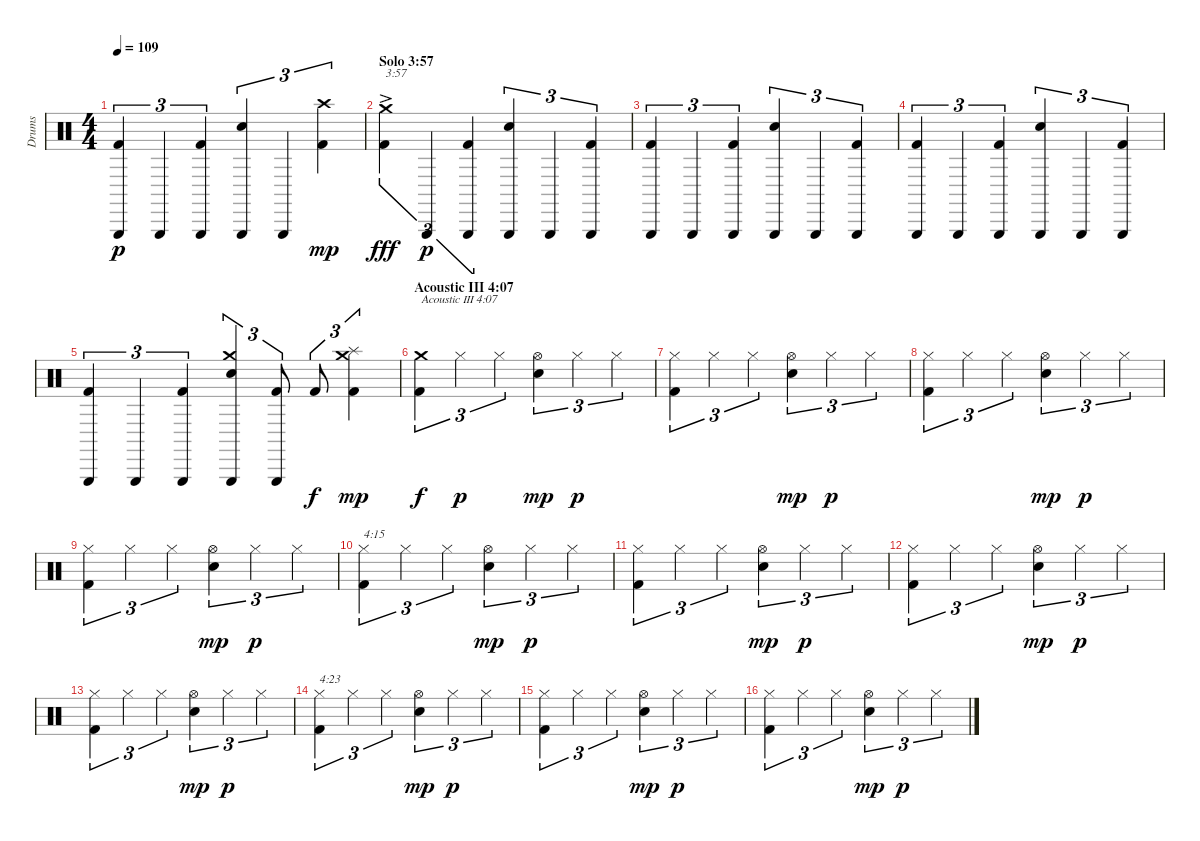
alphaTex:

\track ("Drums" "Drums") {instrument percussion}
\staff {score}
\articulation defaults
\ts (4 4)
\tempo 109
\clef neutral
\ks c
("Kick (hit) 2" "Triangle (hit)").4{tu (3 2) dy p} "Triangle (hit)".4{tu (3 2)} ("Kick (hit) 2" "Triangle (hit)").4{tu (3 2)} ("Electric Snare (hit)" "Triangle (hit)").4{tu (3 2)} "Triangle (hit)".4{tu (3 2)} ("Kick (hit) 2" "Crash high (hit)").4{tu (3 2) dy mp} |
\section ("" "Solo 3:57")
("Kick (hit) 2" "Crash medium (hit)"{ac}).4{tu (3 2) txt "3:57" dy fff} "Triangle (hit)".4{tu (3 2) dy p} ("Kick (hit) 2" "Triangle (hit)").4{tu (3 2)} ("Electric Snare (hit)" "Triangle (hit)").4{tu (3 2)} "Triangle (hit)".4{tu (3 2)} ("Kick (hit) 2" "Triangle (hit)").4{tu (3 2)} |
("Kick (hit) 2" "Triangle (hit)").4{tu (3 2)} "Triangle (hit)".4{tu (3 2)} ("Kick (hit) 2" "Triangle (hit)").4{tu (3 2)} ("Electric Snare (hit)" "Triangle (hit)").4{tu (3 2)} "Triangle (hit)".4{tu (3 2)} ("Kick (hit) 2" "Triangle (hit)").4{tu (3 2)} |
("Kick (hit) 2" "Triangle (hit)").4{tu (3 2)} "Triangle (hit)".4{tu (3 2)} ("Kick (hit) 2" "Triangle (hit)").4{tu (3 2)} ("Electric Snare (hit)" "Triangle (hit)").4{tu (3 2)} "Triangle (hit)".4{tu (3 2)} ("Kick (hit) 2" "Triangle (hit)").4{tu (3 2)} |
("Kick (hit) 2" "Triangle (hit)").4{tu (3 2)} "Triangle (hit)".4{tu (3 2)} ("Kick (hit) 2" "Triangle (hit)").4{tu (3 2)} ("Electric Snare (hit)" "Triangle (hit)" "Crash medium (hit)").4{tu (3 2)} ("Kick (hit) 2" "Triangle (hit)").8{tu (3 2)} "Kick (hit) 2".8{tu (3 2) dy f} ("Kick (hit) 2" "Splash (hit)" "Crash medium (hit)").4{tu (3 2) dy mp} |
\section ("" "Acoustic III 4:07")
("Kick (hit) 2" "Crash medium (hit)").4{tu (3 2) txt "Acoustic III 4:07" dy f} "Hi-Hat (closed)".4{tu (3 2) dy p} "Hi-Hat (closed)".4{tu (3 2)} ("Electric Snare (hit)" "Hi-Hat (open)").4{tu (3 2) dy mp} "Hi-Hat (closed)".4{tu (3 2) dy p} "Hi-Hat (closed)".4{tu (3 2)} |
("Kick (hit) 2" "Hi-Hat (closed)").4{tu (3 2)} "Hi-Hat (closed)".4{tu (3 2)} "Hi-Hat (closed)".4{tu (3 2)} ("Electric Snare (hit)" "Hi-Hat (open)").4{tu (3 2) dy mp} "Hi-Hat (closed)".4{tu (3 2) dy p} "Hi-Hat (closed)".4{tu (3 2)} |
("Kick (hit) 2" "Hi-Hat (closed)").4{tu (3 2)} "Hi-Hat (closed)".4{tu (3 2)} "Hi-Hat (closed)".4{tu (3 2)} ("Electric Snare (hit)" "Hi-Hat (open)").4{tu (3 2) dy mp} "Hi-Hat (closed)".4{tu (3 2) dy p} "Hi-Hat (closed)".4{tu (3 2)} |
("Kick (hit) 2" "Hi-Hat (closed)").4{tu (3 2)} "Hi-Hat (closed)".4{tu (3 2)} "Hi-Hat (closed)".4{tu (3 2)} ("Electric Snare (hit)" "Hi-Hat (open)").4{tu (3 2) dy mp} "Hi-Hat (closed)".4{tu (3 2) dy p} "Hi-Hat (closed)".4{tu (3 2)} |
("Kick (hit) 2" "Hi-Hat (closed)").4{tu (3 2) txt "4:15"} "Hi-Hat (closed)".4{tu (3 2)} "Hi-Hat (closed)".4{tu (3 2)} ("Electric Snare (hit)" "Hi-Hat (open)").4{tu (3 2) dy mp} "Hi-Hat (closed)".4{tu (3 2) dy p} "Hi-Hat (closed)".4{tu (3 2)} |
("Kick (hit) 2" "Hi-Hat (closed)").4{tu (3 2)} "Hi-Hat (closed)".4{tu (3 2)} "Hi-Hat (closed)".4{tu (3 2)} ("Electric Snare (hit)" "Hi-Hat (open)").4{tu (3 2) dy mp} "Hi-Hat (closed)".4{tu (3 2) dy p} "Hi-Hat (closed)".4{tu (3 2)} |
("Kick (hit) 2" "Hi-Hat (closed)").4{tu (3 2)} "Hi-Hat (closed)".4{tu (3 2)} "Hi-Hat (closed)".4{tu (3 2)} ("Electric Snare (hit)" "Hi-Hat (open)").4{tu (3 2) dy mp} "Hi-Hat (closed)".4{tu (3 2) dy p} "Hi-Hat (closed)".4{tu (3 2)} |
("Kick (hit) 2" "Hi-Hat (closed)").4{tu (3 2)} "Hi-Hat (closed)".4{tu (3 2)} "Hi-Hat (closed)".4{tu (3 2)} ("Electric Snare (hit)" "Hi-Hat (open)").4{tu (3 2) dy mp} "Hi-Hat (closed)".4{tu (3 2) dy p} "Hi-Hat (closed)".4{tu (3 2)} |
("Kick (hit) 2" "Hi-Hat (closed)").4{tu (3 2) txt "4:23"} "Hi-Hat (closed)".4{tu (3 2)} "Hi-Hat (closed)".4{tu (3 2)} ("Electric Snare (hit)" "Hi-Hat (open)").4{tu (3 2) dy mp} "Hi-Hat (closed)".4{tu (3 2) dy p} "Hi-Hat (closed)".4{tu (3 2)} |
("Kick (hit) 2" "Hi-Hat (closed)").4{tu (3 2)} "Hi-Hat (closed)".4{tu (3 2)} "Hi-Hat (closed)".4{tu (3 2)} ("Electric Snare (hit)" "Hi-Hat (open)").4{tu (3 2) dy mp} "Hi-Hat (closed)".4{tu (3 2) dy p} "Hi-Hat (closed)".4{tu (3 2)} |
("Kick (hit) 2" "Hi-Hat (closed)").4{tu (3 2)} "Hi-Hat (closed)".4{tu (3 2)} "Hi-Hat (closed)".4{tu (3 2)} ("Electric Snare (hit)" "Hi-Hat (open)").4{tu (3 2) dy mp} "Hi-Hat (closed)".4{tu (3 2) dy p} "Hi-Hat (closed)".4{tu (3 2)}
